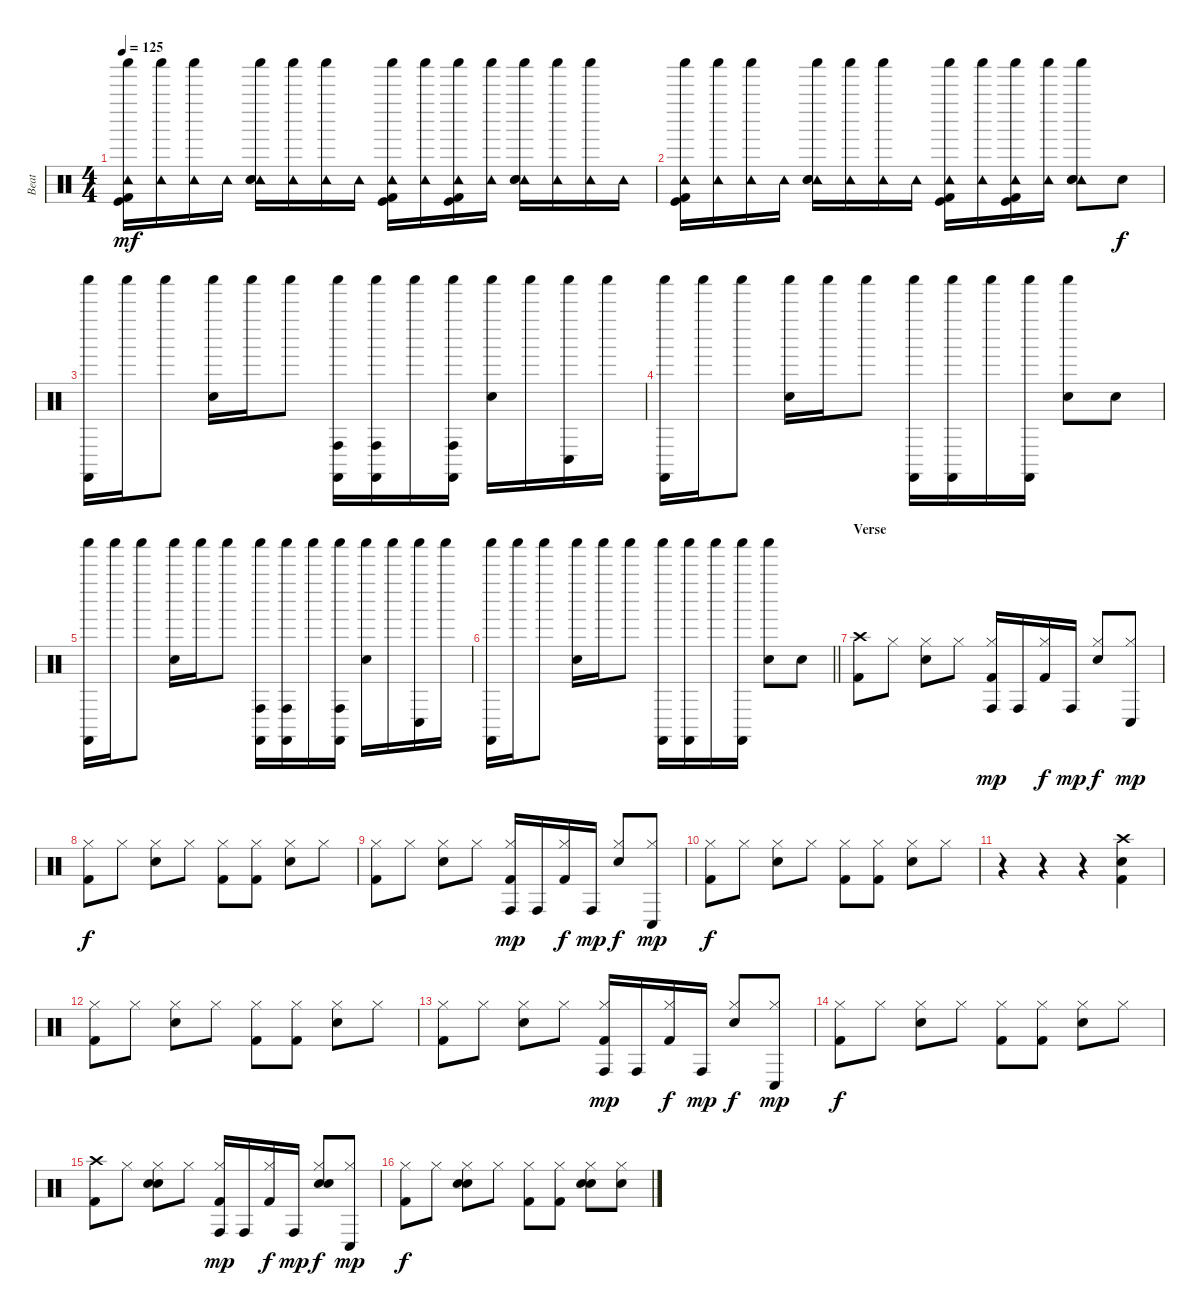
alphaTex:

\track ("Beat" "Beat") {instrument percussion}
\staff {score}
\articulation defaults
\ts (4 4)
\tempo 125
\clef neutral
\ks c
("Shaker (hit)" "Tambourine (hit)" "Kick (hit)" "Kick (hit) 2").16{dy mf} ("Shaker (hit)" "Tambourine (hit)").16 ("Shaker (hit)" "Tambourine (hit)").16 "Tambourine (hit)".16 ("Shaker (hit)" "Tambourine (hit)" "Snare (hit) 2" "Hand Clap (hit)").16 ("Shaker (hit)" "Tambourine (hit)").16 ("Shaker (hit)" "Tambourine (hit)").16 "Tambourine (hit)".16 ("Shaker (hit)" "Tambourine (hit)" "Kick (hit)" "Kick (hit) 2").16 ("Shaker (hit)" "Tambourine (hit)").16 ("Shaker (hit)" "Tambourine (hit)" "Kick (hit)" "Kick (hit) 2").16 ("Shaker (hit)" "Tambourine (hit)").16 ("Shaker (hit)" "Tambourine (hit)" "Snare (hit) 2" "Hand Clap (hit)").16 ("Shaker (hit)" "Tambourine (hit)").16 ("Shaker (hit)" "Tambourine (hit)").16 "Tambourine (hit)".16 |
("Shaker (hit)" "Tambourine (hit)" "Kick (hit)" "Kick (hit) 2").16 ("Shaker (hit)" "Tambourine (hit)").16 ("Shaker (hit)" "Tambourine (hit)").16 "Tambourine (hit)".16 ("Shaker (hit)" "Tambourine (hit)" "Snare (hit) 2" "Hand Clap (hit)").16 ("Shaker (hit)" "Tambourine (hit)").16 ("Shaker (hit)" "Tambourine (hit)").16 "Tambourine (hit)".16 ("Shaker (hit)" "Tambourine (hit)" "Kick (hit)" "Kick (hit) 2").16 ("Shaker (hit)" "Tambourine (hit)").16 ("Shaker (hit)" "Tambourine (hit)" "Kick (hit)" "Kick (hit) 2").16 ("Shaker (hit)" "Tambourine (hit)").16 ("Shaker (hit)" "Tambourine (hit)" "Snare (hit) 2" "Hand Clap (hit)").8 "Hand Clap (hit)".8{dy f} |
("Shaker (hit)" "Castanets (hit)").16 "Shaker (hit)".16 "Shaker (hit)".8 ("Shaker (hit)" "Hand Clap (hit)").16 "Shaker (hit)".16 "Shaker (hit)".8 ("Conga high (hit)" "Shaker (hit)" "Castanets (hit)").16 ("Conga high (hit)" "Shaker (hit)" "Castanets (hit)").16 "Shaker (hit)".16 ("Conga high (hit)" "Shaker (hit)" "Castanets (hit)").16 ("Shaker (hit)" "Hand Clap (hit)").16 "Shaker (hit)".16 ("Conga low (hit)" "Shaker (hit)").16 "Shaker (hit)".16 |
("Shaker (hit)" "Castanets (hit)").16 "Shaker (hit)".16 "Shaker (hit)".8 ("Shaker (hit)" "Hand Clap (hit)").16 "Shaker (hit)".16 "Shaker (hit)".8 ("Shaker (hit)" "Castanets (hit)").16 ("Shaker (hit)" "Castanets (hit)").16 "Shaker (hit)".16 ("Shaker (hit)" "Castanets (hit)").16 ("Shaker (hit)" "Hand Clap (hit)").8 "Hand Clap (hit)".8 |
("Shaker (hit)" "Castanets (hit)").16 "Shaker (hit)".16 "Shaker (hit)".8 ("Shaker (hit)" "Hand Clap (hit)").16 "Shaker (hit)".16 "Shaker (hit)".8 ("Conga high (hit)" "Shaker (hit)" "Castanets (hit)").16 ("Conga high (hit)" "Shaker (hit)" "Castanets (hit)").16 "Shaker (hit)".16 ("Conga high (hit)" "Shaker (hit)" "Castanets (hit)").16 ("Shaker (hit)" "Hand Clap (hit)").16 "Shaker (hit)".16 ("Conga low (hit)" "Shaker (hit)").16 "Shaker (hit)".16 |
\barLineRight lightlight
("Shaker (hit)" "Castanets (hit)").16 "Shaker (hit)".16 "Shaker (hit)".8 ("Shaker (hit)" "Hand Clap (hit)").16 "Shaker (hit)".16 "Shaker (hit)".8 ("Shaker (hit)" "Castanets (hit)").16 ("Shaker (hit)" "Castanets (hit)").16 "Shaker (hit)".16 ("Shaker (hit)" "Castanets (hit)").16 ("Shaker (hit)" "Hand Clap (hit)").8 "Hand Clap (hit)".8 |
\section ("" "Verse")
("Crash high (hit)" "Kick (hit) 2").8 "Hi-Hat (closed)".8 ("Hi-Hat (closed)" "Snare (hit) 2").8 "Hi-Hat (closed)".8 ("Conga high (hit)" "Hi-Hat (closed)" "Kick (hit) 2").16{dy mp} "Conga high (hit)".16 ("Hi-Hat (closed)" "Kick (hit) 2").16{dy f} "Conga high (hit)".16{dy mp} ("Hi-Hat (closed)" "Snare (hit) 2").8{dy f} ("Conga low (hit)" "Hi-Hat (closed)").8{dy mp} |
("Hi-Hat (closed)" "Kick (hit) 2").8{dy f} "Hi-Hat (closed)".8 ("Hi-Hat (closed)" "Snare (hit) 2").8 "Hi-Hat (closed)".8 ("Hi-Hat (closed)" "Kick (hit) 2").8 ("Hi-Hat (closed)" "Kick (hit) 2").8 ("Hi-Hat (closed)" "Snare (hit) 2").8 "Hi-Hat (closed)".8 |
("Hi-Hat (closed)" "Kick (hit) 2").8 "Hi-Hat (closed)".8 ("Hi-Hat (closed)" "Snare (hit) 2").8 "Hi-Hat (closed)".8 ("Conga high (hit)" "Hi-Hat (closed)" "Kick (hit) 2").16{dy mp} "Conga high (hit)".16 ("Hi-Hat (closed)" "Kick (hit) 2").16{dy f} "Conga high (hit)".16{dy mp} ("Hi-Hat (closed)" "Snare (hit) 2").8{dy f} ("Conga low (hit)" "Hi-Hat (closed)").8{dy mp} |
("Hi-Hat (closed)" "Kick (hit) 2").8{dy f} "Hi-Hat (closed)".8 ("Hi-Hat (closed)" "Snare (hit) 2").8 "Hi-Hat (closed)".8 ("Hi-Hat (closed)" "Kick (hit) 2").8 ("Hi-Hat (closed)" "Kick (hit) 2").8 ("Hi-Hat (closed)" "Snare (hit) 2").8 "Hi-Hat (closed)".8 |
r.4 r.4 r.4 ("Crash high (hit)" "Snare (hit) 2" "Kick (hit) 2").4 |
("Hi-Hat (closed)" "Kick (hit) 2").8 "Hi-Hat (closed)".8 ("Hi-Hat (closed)" "Snare (hit) 2").8 "Hi-Hat (closed)".8 ("Hi-Hat (closed)" "Kick (hit) 2").8 ("Hi-Hat (closed)" "Kick (hit) 2").8 ("Hi-Hat (closed)" "Snare (hit) 2").8 "Hi-Hat (closed)".8 |
("Hi-Hat (closed)" "Kick (hit) 2").8 "Hi-Hat (closed)".8 ("Hi-Hat (closed)" "Snare (hit) 2").8 "Hi-Hat (closed)".8 ("Conga high (hit)" "Hi-Hat (closed)" "Kick (hit) 2").16{dy mp} "Conga high (hit)".16 ("Hi-Hat (closed)" "Kick (hit) 2").16{dy f} "Conga high (hit)".16{dy mp} ("Hi-Hat (closed)" "Snare (hit) 2").8{dy f} ("Conga low (hit)" "Hi-Hat (closed)").8{dy mp} |
("Hi-Hat (closed)" "Kick (hit) 2").8{dy f} "Hi-Hat (closed)".8 ("Hi-Hat (closed)" "Snare (hit) 2").8 "Hi-Hat (closed)".8 ("Hi-Hat (closed)" "Kick (hit) 2").8 ("Hi-Hat (closed)" "Kick (hit) 2").8 ("Hi-Hat (closed)" "Snare (hit) 2").8 "Hi-Hat (closed)".8 |
("Crash high (hit)" "Kick (hit) 2").8 "Hi-Hat (closed)".8 ("Hi-Hat (closed)" "Snare (hit) 2" "Hand Clap (hit)").8 "Hi-Hat (closed)".8 ("Conga high (hit)" "Hi-Hat (closed)" "Kick (hit) 2").16{dy mp} "Conga high (hit)".16 ("Hi-Hat (closed)" "Kick (hit) 2").16{dy f} "Conga high (hit)".16{dy mp} ("Hi-Hat (closed)" "Snare (hit) 2" "Hand Clap (hit)").8{dy f} ("Conga low (hit)" "Hi-Hat (closed)").8{dy mp} |
("Hi-Hat (closed)" "Kick (hit) 2").8{dy f} "Hi-Hat (closed)".8 ("Hi-Hat (closed)" "Snare (hit) 2" "Hand Clap (hit)").8 "Hi-Hat (closed)".8 ("Hi-Hat (closed)" "Kick (hit) 2").8 ("Hi-Hat (closed)" "Kick (hit) 2").8 ("Hi-Hat (closed)" "Snare (hit) 2" "Hand Clap (hit)").8 ("Hi-Hat (closed)" "Hand Clap (hit)").8
